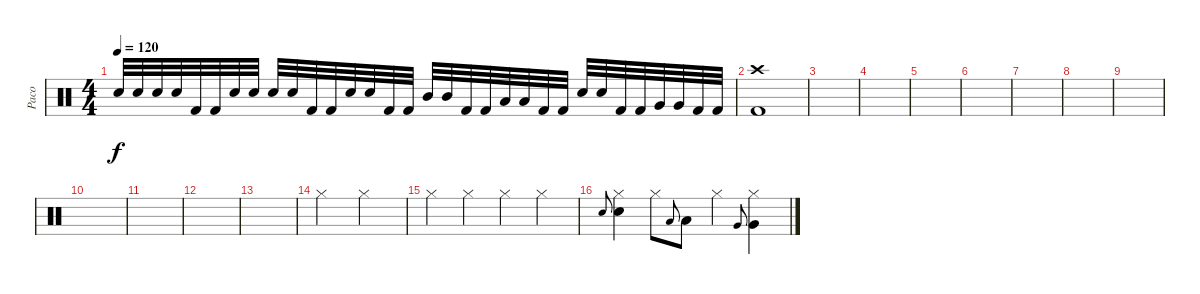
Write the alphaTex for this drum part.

\track ("Paco" "Paco") {instrument percussion}
\staff {score}
\articulation defaults
\ts (4 4)
\tempo 120
\clef neutral
\ks c "Electric Snare (hit)".32{dy f} "Electric Snare (hit)".32 "Electric Snare (hit)".32 "Electric Snare (hit)".32 "Kick (hit) 2".32 "Kick (hit) 2".32 "Electric Snare (hit)".32 "Electric Snare (hit)".32 "Electric Snare (hit)".32 "Electric Snare (hit)".32 "Kick (hit) 2".32 "Kick (hit) 2".32 "Electric Snare (hit)".32 "Electric Snare (hit)".32 "Kick (hit) 2".32 "Kick (hit) 2".32 "Mid Tom (hit)".32 "Mid Tom (hit)".32 "Kick (hit) 2".32 "Kick (hit) 2".32 "Low Tom (hit)".32 "Low Tom (hit)".32 "Kick (hit) 2".32 "Kick (hit) 2".32 "Electric Snare (hit)".32 "Electric Snare (hit)".32 "Kick (hit) 2".32 "Kick (hit) 2".32 "Very Low Tom (hit)".32 "Very Low Tom (hit)".32 "Kick (hit) 2".32 "Kick (hit) 2".32
|
("Crash high (hit)" "Kick (hit) 2").1 |
|
|
|
|
|
|
|
|
|
|
|
"Hi-Hat (closed)".2 "Hi-Hat (closed)".2 |
"Hi-Hat (closed)".4 "Hi-Hat (closed)".4 "Hi-Hat (closed)".4 "Hi-Hat (closed)".4 |
"Electric Snare (hit)".8{gr onbeat} ("Hi-Hat (closed)" "Electric Snare (hit)").4 "Hi-Hat (closed)".8 "Low Tom (hit)".8{gr onbeat} "Low Tom (hit)".8 "Hi-Hat (closed)".4 "Very Low Tom (hit)".8{gr onbeat} ("Hi-Hat (closed)" "Very Low Tom (hit)").4
